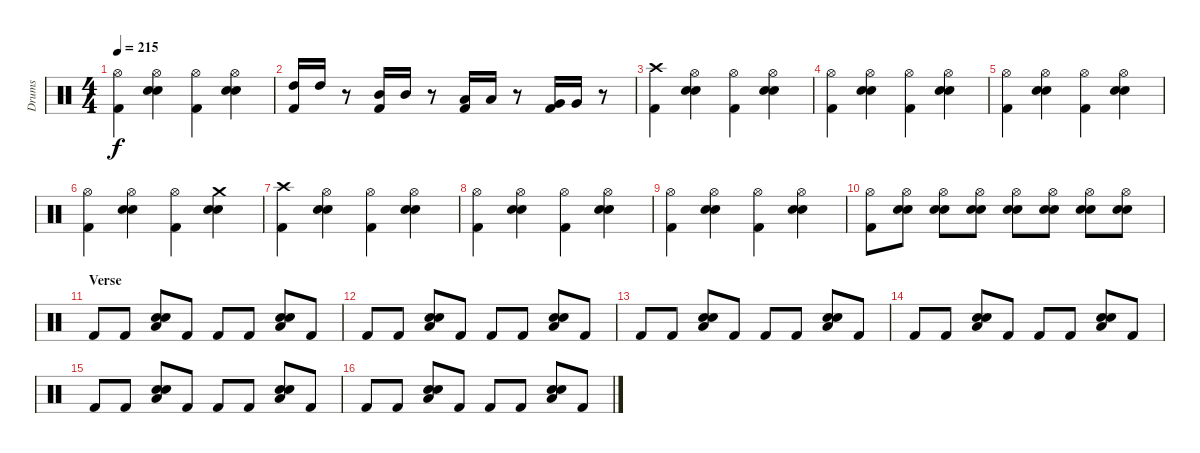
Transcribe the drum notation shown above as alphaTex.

\track ("Drums" "Drums") {instrument percussion}
\staff {score}
\articulation defaults
\ts (4 4)
\tempo 215
\clef neutral
\ks c
("Hi-Hat (open)" "Kick (hit) 2").4{dy f} ("Hi-Hat (open)" "Electric Snare (hit)" "Electric Snare (hit)").4 ("Hi-Hat (open)" "Kick (hit) 2").4 ("Hi-Hat (open)" "Electric Snare (hit)" "Electric Snare (hit)").4 |
("Kick (hit) 2" "High Tom (hit)").16 "High Tom (hit)".16 r.8 ("Kick (hit) 2" "Mid Tom (hit)").16 "Mid Tom (hit)".16 r.8 ("Kick (hit) 2" "Low Tom (hit)").16 "Low Tom (hit)".16 r.8 ("Kick (hit) 2" "Very Low Tom (hit)").16 "Very Low Tom (hit)".16 r.8 |
("Crash high (hit)" "Kick (hit) 2").4 ("Hi-Hat (open)" "Electric Snare (hit)" "Electric Snare (hit)").4 ("Hi-Hat (open)" "Kick (hit) 2").4 ("Hi-Hat (open)" "Electric Snare (hit)" "Electric Snare (hit)").4 |
("Hi-Hat (open)" "Kick (hit) 2").4 ("Hi-Hat (open)" "Electric Snare (hit)" "Electric Snare (hit)").4 ("Hi-Hat (open)" "Kick (hit) 2").4 ("Hi-Hat (open)" "Electric Snare (hit)" "Electric Snare (hit)").4 |
("Hi-Hat (open)" "Kick (hit) 2").4 ("Hi-Hat (open)" "Electric Snare (hit)" "Electric Snare (hit)").4 ("Hi-Hat (open)" "Kick (hit) 2").4 ("Hi-Hat (open)" "Electric Snare (hit)" "Electric Snare (hit)").4 |
("Hi-Hat (open)" "Kick (hit) 2").4 ("Hi-Hat (open)" "Electric Snare (hit)" "Electric Snare (hit)").4 ("Hi-Hat (open)" "Kick (hit) 2").4 ("Crash medium (hit)" "Electric Snare (hit)" "Electric Snare (hit)").4 |
("Crash high (hit)" "Kick (hit) 2").4 ("Hi-Hat (open)" "Electric Snare (hit)" "Electric Snare (hit)").4 ("Hi-Hat (open)" "Kick (hit) 2").4 ("Hi-Hat (open)" "Electric Snare (hit)" "Electric Snare (hit)").4 |
("Hi-Hat (open)" "Kick (hit) 2").4 ("Hi-Hat (open)" "Electric Snare (hit)" "Electric Snare (hit)").4 ("Hi-Hat (open)" "Kick (hit) 2").4 ("Hi-Hat (open)" "Electric Snare (hit)" "Electric Snare (hit)").4 |
("Hi-Hat (open)" "Kick (hit) 2").4 ("Hi-Hat (open)" "Electric Snare (hit)" "Electric Snare (hit)").4 ("Hi-Hat (open)" "Kick (hit) 2").4 ("Hi-Hat (open)" "Electric Snare (hit)" "Electric Snare (hit)").4 |
("Hi-Hat (open)" "Kick (hit) 2").8 ("Hi-Hat (open)" "Electric Snare (hit)" "Electric Snare (hit)").8 ("Hi-Hat (open)" "Electric Snare (hit)" "Electric Snare (hit)").8 ("Hi-Hat (open)" "Electric Snare (hit)" "Electric Snare (hit)").8 ("Hi-Hat (open)" "Electric Snare (hit)" "Electric Snare (hit)").8 ("Hi-Hat (open)" "Electric Snare (hit)" "Electric Snare (hit)").8 ("Hi-Hat (open)" "Electric Snare (hit)" "Electric Snare (hit)").8 ("Hi-Hat (open)" "Electric Snare (hit)" "Electric Snare (hit)").8 |
\section ("" "Verse")
"Kick (hit) 2".8 "Kick (hit) 2".8 ("Low Floor Tom (hit)" "Electric Snare (hit)" "Electric Snare (hit)").8 "Kick (hit) 2".8 "Kick (hit) 2".8 "Kick (hit) 2".8 ("Low Floor Tom (hit)" "Electric Snare (hit)" "Electric Snare (hit)").8 "Kick (hit) 2".8 |
"Kick (hit) 2".8 "Kick (hit) 2".8 ("Low Floor Tom (hit)" "Electric Snare (hit)" "Electric Snare (hit)").8 "Kick (hit) 2".8 "Kick (hit) 2".8 "Kick (hit) 2".8 ("Low Floor Tom (hit)" "Electric Snare (hit)" "Electric Snare (hit)").8 "Kick (hit) 2".8 |
"Kick (hit) 2".8 "Kick (hit) 2".8 ("Low Floor Tom (hit)" "Electric Snare (hit)" "Electric Snare (hit)").8 "Kick (hit) 2".8 "Kick (hit) 2".8 "Kick (hit) 2".8 ("Low Floor Tom (hit)" "Electric Snare (hit)" "Electric Snare (hit)").8 "Kick (hit) 2".8 |
"Kick (hit) 2".8 "Kick (hit) 2".8 ("Low Floor Tom (hit)" "Electric Snare (hit)" "Electric Snare (hit)").8 "Kick (hit) 2".8 "Kick (hit) 2".8 "Kick (hit) 2".8 ("Low Floor Tom (hit)" "Electric Snare (hit)" "Electric Snare (hit)").8 "Kick (hit) 2".8 |
"Kick (hit) 2".8 "Kick (hit) 2".8 ("Low Floor Tom (hit)" "Electric Snare (hit)" "Electric Snare (hit)").8 "Kick (hit) 2".8 "Kick (hit) 2".8 "Kick (hit) 2".8 ("Low Floor Tom (hit)" "Electric Snare (hit)" "Electric Snare (hit)").8 "Kick (hit) 2".8 |
"Kick (hit) 2".8 "Kick (hit) 2".8 ("Low Floor Tom (hit)" "Electric Snare (hit)" "Electric Snare (hit)").8 "Kick (hit) 2".8 "Kick (hit) 2".8 "Kick (hit) 2".8 ("Low Floor Tom (hit)" "Electric Snare (hit)" "Electric Snare (hit)").8 "Kick (hit) 2".8
